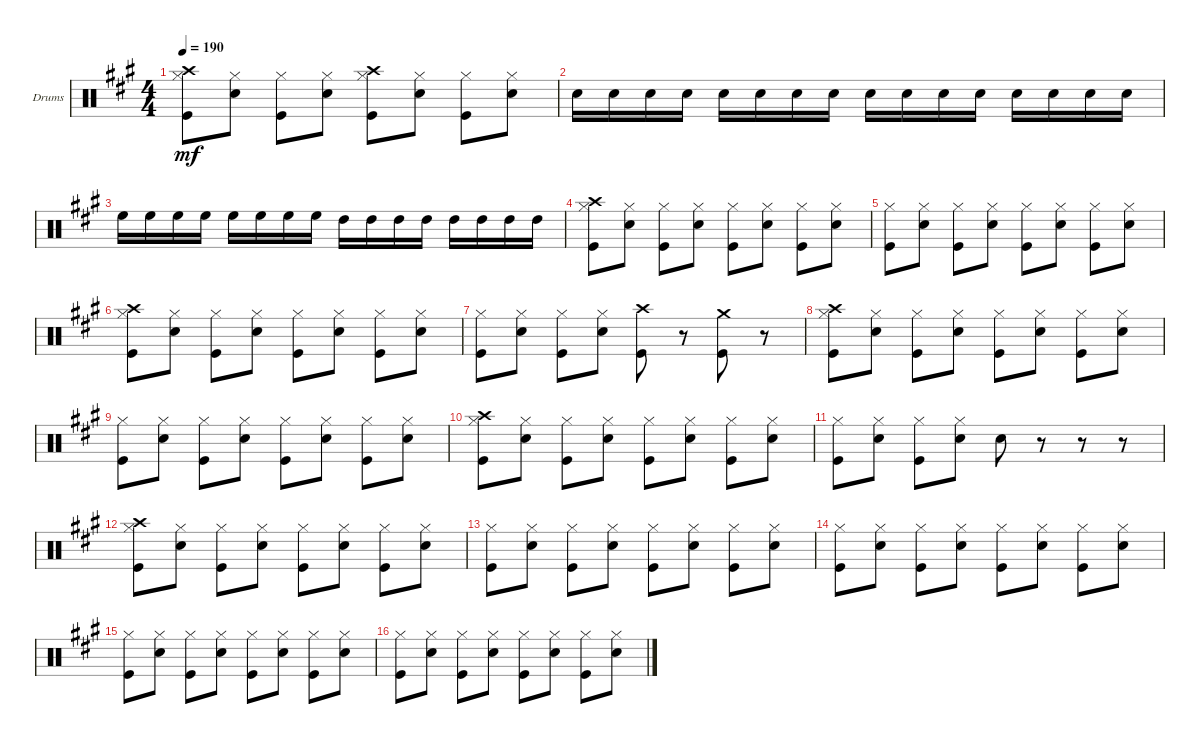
\defaultSystemsLayout 4
\bracketExtendMode groupsimilarinstruments
\firstSystemTrackNameOrientation horizontal
\otherSystemsTrackNameOrientation horizontal
\track ("Drumkit" "Drums") {instrument percussion}
\staff {score}
\articulation defaults
\ts (4 4)
\tempo 190
\clef neutral
\ks f#minor
("Kick (hit)" "Hi-Hat (closed)" "Crash high (hit)").8{dy mf} ("Snare (hit) 2" "Hi-Hat (closed)").8 ("Kick (hit)" "Hi-Hat (closed)").8 ("Snare (hit) 2" "Hi-Hat (closed)").8 ("Kick (hit)" "Hi-Hat (closed)" "Crash high (hit)").8 ("Snare (hit) 2" "Hi-Hat (closed)").8 ("Kick (hit)" "Hi-Hat (closed)").8 ("Snare (hit) 2" "Hi-Hat (closed)").8 |
"Snare (hit) 2".16 "Snare (hit) 2".16 "Snare (hit) 2".16 "Snare (hit) 2".16 "Snare (hit) 2".16 "Snare (hit) 2".16 "Snare (hit) 2".16 "Snare (hit) 2".16 "Snare (hit) 2".16 "Snare (hit) 2".16 "Snare (hit) 2".16 "Snare (hit) 2".16 "Snare (hit) 2".16 "Snare (hit) 2".16 "Snare (hit) 2".16 "Snare (hit) 2".16 |
"High Floor Tom (hit)".16 "High Floor Tom (hit)".16 "High Floor Tom (hit)".16 "High Floor Tom (hit)".16 "High Floor Tom (hit)".16 "High Floor Tom (hit)".16 "High Floor Tom (hit)".16 "High Floor Tom (hit)".16 "High Tom (hit)".16 "High Tom (hit)".16 "High Tom (hit)".16 "High Tom (hit)".16 "High Tom (hit)".16 "High Tom (hit)".16 "High Tom (hit)".16 "High Tom (hit)".16 |
("Kick (hit)" "Hi-Hat (closed)" "Crash high (hit)").8 ("Snare (hit) 2" "Hi-Hat (closed)").8 ("Kick (hit)" "Hi-Hat (closed)").8 ("Snare (hit) 2" "Hi-Hat (closed)").8 ("Kick (hit)" "Hi-Hat (closed)").8 ("Snare (hit) 2" "Hi-Hat (closed)").8 ("Kick (hit)" "Hi-Hat (closed)").8 ("Snare (hit) 2" "Hi-Hat (closed)").8 |
("Kick (hit)" "Hi-Hat (closed)").8 ("Snare (hit) 2" "Hi-Hat (closed)").8 ("Kick (hit)" "Hi-Hat (closed)").8 ("Snare (hit) 2" "Hi-Hat (closed)").8 ("Kick (hit)" "Hi-Hat (closed)").8 ("Snare (hit) 2" "Hi-Hat (closed)").8 ("Kick (hit)" "Hi-Hat (closed)").8 ("Snare (hit) 2" "Hi-Hat (closed)").8 |
("Kick (hit)" "Hi-Hat (closed)" "Crash high (hit)").8 ("Snare (hit) 2" "Hi-Hat (closed)").8 ("Kick (hit)" "Hi-Hat (closed)").8 ("Snare (hit) 2" "Hi-Hat (closed)").8 ("Kick (hit)" "Hi-Hat (closed)").8 ("Snare (hit) 2" "Hi-Hat (closed)").8 ("Kick (hit)" "Hi-Hat (closed)").8 ("Snare (hit) 2" "Hi-Hat (closed)").8 |
("Kick (hit)" "Hi-Hat (closed)").8 ("Snare (hit) 2" "Hi-Hat (closed)").8 ("Kick (hit)" "Hi-Hat (closed)").8 ("Snare (hit) 2" "Hi-Hat (closed)").8 ("Kick (hit)" "Crash high (hit)").8 r.8 ("Kick (hit)" "Crash medium (hit)").8 r.8 |
("Kick (hit)" "Hi-Hat (closed)" "Crash high (hit)").8 ("Snare (hit) 2" "Hi-Hat (closed)").8 ("Kick (hit)" "Hi-Hat (closed)").8 ("Snare (hit) 2" "Hi-Hat (closed)").8 ("Kick (hit)" "Hi-Hat (closed)").8 ("Snare (hit) 2" "Hi-Hat (closed)").8 ("Kick (hit)" "Hi-Hat (closed)").8 ("Snare (hit) 2" "Hi-Hat (closed)").8 |
("Kick (hit)" "Hi-Hat (closed)").8 ("Snare (hit) 2" "Hi-Hat (closed)").8 ("Kick (hit)" "Hi-Hat (closed)").8 ("Snare (hit) 2" "Hi-Hat (closed)").8 ("Kick (hit)" "Hi-Hat (closed)").8 ("Snare (hit) 2" "Hi-Hat (closed)").8 ("Kick (hit)" "Hi-Hat (closed)").8 ("Snare (hit) 2" "Hi-Hat (closed)").8 |
("Kick (hit)" "Hi-Hat (closed)" "Crash high (hit)").8 ("Snare (hit) 2" "Hi-Hat (closed)").8 ("Kick (hit)" "Hi-Hat (closed)").8 ("Snare (hit) 2" "Hi-Hat (closed)").8 ("Kick (hit)" "Hi-Hat (closed)").8 ("Snare (hit) 2" "Hi-Hat (closed)").8 ("Kick (hit)" "Hi-Hat (closed)").8 ("Snare (hit) 2" "Hi-Hat (closed)").8 |
("Kick (hit)" "Hi-Hat (closed)").8 ("Snare (hit) 2" "Hi-Hat (closed)").8 ("Kick (hit)" "Hi-Hat (closed)").8 ("Snare (hit) 2" "Hi-Hat (closed)").8 "Snare (hit) 2".8 r.8 r.8 r.8 |
("Kick (hit)" "Hi-Hat (closed)" "Crash high (hit)").8 ("Snare (hit) 2" "Hi-Hat (closed)").8 ("Kick (hit)" "Hi-Hat (closed)").8 ("Snare (hit) 2" "Hi-Hat (closed)").8 ("Kick (hit)" "Hi-Hat (closed)").8 ("Snare (hit) 2" "Hi-Hat (closed)").8 ("Kick (hit)" "Hi-Hat (closed)").8 ("Snare (hit) 2" "Hi-Hat (closed)").8 |
("Kick (hit)" "Hi-Hat (closed)").8 ("Snare (hit) 2" "Hi-Hat (closed)").8 ("Kick (hit)" "Hi-Hat (closed)").8 ("Snare (hit) 2" "Hi-Hat (closed)").8 ("Kick (hit)" "Hi-Hat (closed)").8 ("Snare (hit) 2" "Hi-Hat (closed)").8 ("Kick (hit)" "Hi-Hat (closed)").8 ("Snare (hit) 2" "Hi-Hat (closed)").8 |
("Kick (hit)" "Hi-Hat (closed)").8 ("Snare (hit) 2" "Hi-Hat (closed)").8 ("Kick (hit)" "Hi-Hat (closed)").8 ("Snare (hit) 2" "Hi-Hat (closed)").8 ("Kick (hit)" "Hi-Hat (closed)").8 ("Snare (hit) 2" "Hi-Hat (closed)").8 ("Kick (hit)" "Hi-Hat (closed)").8 ("Snare (hit) 2" "Hi-Hat (closed)").8 |
("Kick (hit)" "Hi-Hat (closed)").8 ("Snare (hit) 2" "Hi-Hat (closed)").8 ("Kick (hit)" "Hi-Hat (closed)").8 ("Snare (hit) 2" "Hi-Hat (closed)").8 ("Kick (hit)" "Hi-Hat (closed)").8 ("Snare (hit) 2" "Hi-Hat (closed)").8 ("Kick (hit)" "Hi-Hat (closed)").8 ("Snare (hit) 2" "Hi-Hat (closed)").8 |
("Kick (hit)" "Hi-Hat (closed)").8 ("Snare (hit) 2" "Hi-Hat (closed)").8 ("Kick (hit)" "Hi-Hat (closed)").8 ("Snare (hit) 2" "Hi-Hat (closed)").8 ("Kick (hit)" "Hi-Hat (closed)").8 ("Snare (hit) 2" "Hi-Hat (closed)").8 ("Kick (hit)" "Hi-Hat (closed)").8 ("Snare (hit) 2" "Hi-Hat (closed)").8
